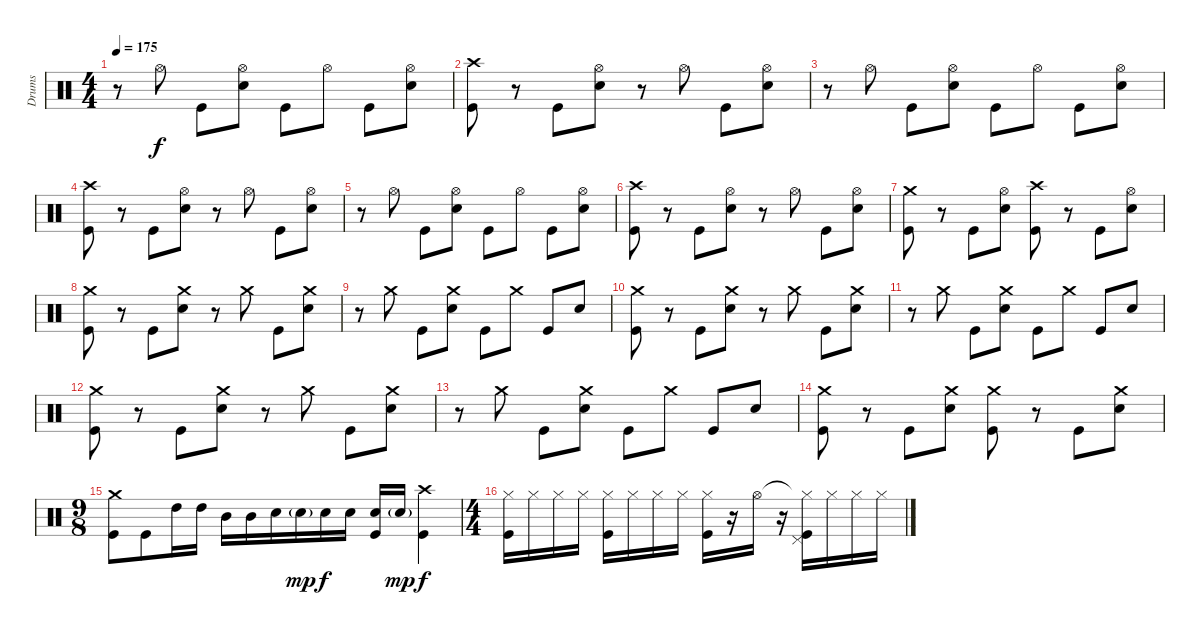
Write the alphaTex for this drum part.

\track ("Drums" "Drums") {instrument percussion}
\staff {score}
\articulation defaults
\ts (4 4)
\tempo 175
\clef neutral
\ks c
r.8{dy f} "Hi-Hat (open)".8 "Kick (hit)".8 ("Hi-Hat (open)" "Electric Snare (hit)").8 "Kick (hit)".8 "Hi-Hat (open)".8 "Kick (hit)".8 ("Hi-Hat (open)" "Electric Snare (hit)").8 |
("Crash high (hit)" "Kick (hit)").8 r.8 "Kick (hit)".8 ("Hi-Hat (open)" "Electric Snare (hit)").8 r.8 "Hi-Hat (open)".8 "Kick (hit)".8 ("Hi-Hat (open)" "Electric Snare (hit)").8 |
r.8 "Hi-Hat (open)".8 "Kick (hit)".8 ("Hi-Hat (open)" "Electric Snare (hit)").8 "Kick (hit)".8 "Hi-Hat (open)".8 "Kick (hit)".8 ("Hi-Hat (open)" "Electric Snare (hit)").8 |
("Crash high (hit)" "Kick (hit)").8 r.8 "Kick (hit)".8 ("Hi-Hat (open)" "Electric Snare (hit)").8 r.8 "Hi-Hat (open)".8 "Kick (hit)".8 ("Hi-Hat (open)" "Electric Snare (hit)").8 |
r.8 "Hi-Hat (open)".8 "Kick (hit)".8 ("Hi-Hat (open)" "Electric Snare (hit)").8 "Kick (hit)".8 "Hi-Hat (open)".8 "Kick (hit)".8 ("Hi-Hat (open)" "Electric Snare (hit)").8 |
("Crash high (hit)" "Kick (hit)").8 r.8 "Kick (hit)".8 ("Hi-Hat (open)" "Electric Snare (hit)").8 r.8 "Hi-Hat (open)".8 "Kick (hit)".8 ("Hi-Hat (open)" "Electric Snare (hit)").8 |
("Crash medium (hit)" "Kick (hit)").8 r.8 "Kick (hit)".8 ("Hi-Hat (open)" "Electric Snare (hit)").8 ("Crash high (hit)" "Kick (hit)").8 r.8 "Kick (hit)".8 ("Hi-Hat (open)" "Electric Snare (hit)").8 |
("Crash medium (hit)" "Kick (hit)").8 r.8 "Kick (hit)".8 ("Crash medium (hit)" "Electric Snare (hit)").8 r.8 "Crash medium (hit)".8 "Kick (hit)".8 ("Crash medium (hit)" "Electric Snare (hit)").8 |
r.8 "Crash medium (hit)".8 "Kick (hit)".8 ("Crash medium (hit)" "Electric Snare (hit)").8 "Kick (hit)".8 "Crash medium (hit)".8 "Kick (hit)".8 "Electric Snare (hit)".8 |
("Crash medium (hit)" "Kick (hit)").8 r.8 "Kick (hit)".8 ("Crash medium (hit)" "Electric Snare (hit)").8 r.8 "Crash medium (hit)".8 "Kick (hit)".8 ("Crash medium (hit)" "Electric Snare (hit)").8 |
r.8 "Crash medium (hit)".8 "Kick (hit)".8 ("Crash medium (hit)" "Electric Snare (hit)").8 "Kick (hit)".8 "Crash medium (hit)".8 "Kick (hit)".8 "Electric Snare (hit)".8 |
("Crash medium (hit)" "Kick (hit)").8 r.8 "Kick (hit)".8 ("Crash medium (hit)" "Electric Snare (hit)").8 r.8 "Crash medium (hit)".8 "Kick (hit)".8 ("Crash medium (hit)" "Electric Snare (hit)").8 |
r.8 "Crash medium (hit)".8 "Kick (hit)".8 ("Crash medium (hit)" "Electric Snare (hit)").8 "Kick (hit)".8 "Crash medium (hit)".8 "Kick (hit)".8 "Electric Snare (hit)".8 |
("Crash medium (hit)" "Kick (hit)").8 r.8 "Kick (hit)".8 ("Crash medium (hit)" "Electric Snare (hit)").8 ("Crash medium (hit)" "Kick (hit)").8 r.8 "Kick (hit)".8 ("Crash medium (hit)" "Electric Snare (hit)").8 |
\ts (9 8)
("Crash medium (hit)" "Kick (hit)").8 "Kick (hit)".8 "High Tom (hit)".16 "High Tom (hit)".16 "Mid Tom (hit)".16 "Mid Tom (hit)".16 "Electric Snare (hit)".16 "Electric Snare (hit)"{g}.16{dy mp} "Electric Snare (hit)".16{dy f} "Electric Snare (hit)".16 ("Electric Snare (hit)" "Kick (hit)").16 "Electric Snare (hit)"{g}.16{dy mp} ("Crash high (hit)" "Kick (hit)").4{dy f} |
\ts (4 4)
("Hi-Hat (closed)" "Kick (hit)").16 "Hi-Hat (closed)".16 "Hi-Hat (closed)".16 "Hi-Hat (closed)".16 ("Hi-Hat (closed)" "Kick (hit)").16 "Hi-Hat (closed)".16 "Hi-Hat (closed)".16 "Hi-Hat (closed)".16 ("Hi-Hat (closed)" "Kick (hit)").16 r.16 "Hi-Hat (open)".16 r.16 ("Hi-Hat (closed)"{t} "Pedal Hi-Hat (hit)" "Kick (hit)").16 "Hi-Hat (closed)".16 "Hi-Hat (closed)".16 "Hi-Hat (closed)".16
